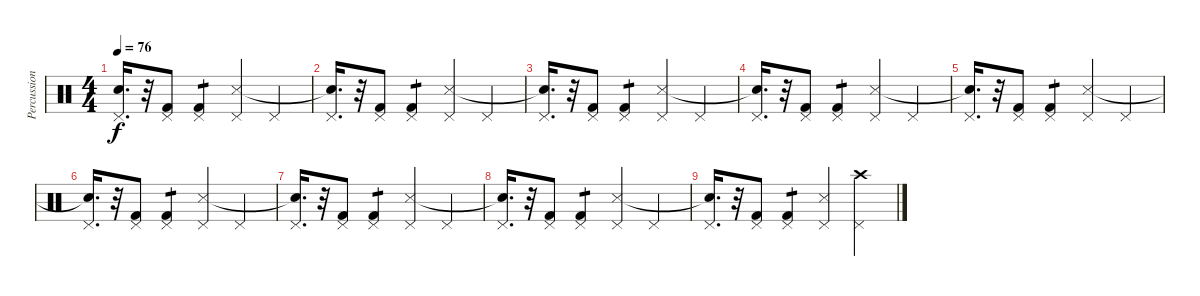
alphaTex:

\track ("Percussion" "Percussion") {instrument percussion}
\staff {score}
\articulation defaults
\ts (4 4)
\tempo 76
\clef neutral
\ks c
("Pedal Hi-Hat (hit)" "Snare (hit)"{t}).16{d dy f} r.32 ("Pedal Hi-Hat (hit)" "Kick (hit) 2").8 ("Pedal Hi-Hat (hit)" "Kick (hit) 2").4{tp 1} ("Pedal Hi-Hat (hit)" "Snare (side stick) 3").4 "Pedal Hi-Hat (hit)".4 |
("Pedal Hi-Hat (hit)" "Snare (hit)"{t}).16{d} r.32 ("Pedal Hi-Hat (hit)" "Kick (hit) 2").8 ("Pedal Hi-Hat (hit)" "Kick (hit) 2").4{tp 1} ("Pedal Hi-Hat (hit)" "Snare (side stick) 3").4 "Pedal Hi-Hat (hit)".4 |
("Pedal Hi-Hat (hit)" "Snare (hit)"{t}).16{d} r.32 ("Pedal Hi-Hat (hit)" "Kick (hit) 2").8 ("Pedal Hi-Hat (hit)" "Kick (hit) 2").4{tp 1} ("Pedal Hi-Hat (hit)" "Snare (side stick) 3").4 "Pedal Hi-Hat (hit)".4 |
("Pedal Hi-Hat (hit)" "Snare (hit)"{t}).16{d} r.32 ("Pedal Hi-Hat (hit)" "Kick (hit) 2").8 ("Pedal Hi-Hat (hit)" "Kick (hit) 2").4{tp 1} ("Pedal Hi-Hat (hit)" "Snare (side stick) 3").4 "Pedal Hi-Hat (hit)".4 |
("Pedal Hi-Hat (hit)" "Snare (hit)"{t}).16{d} r.32 ("Pedal Hi-Hat (hit)" "Kick (hit) 2").8 ("Pedal Hi-Hat (hit)" "Kick (hit) 2").4{tp 1} ("Pedal Hi-Hat (hit)" "Snare (side stick) 3").4 "Pedal Hi-Hat (hit)".4 |
("Pedal Hi-Hat (hit)" "Snare (hit)"{t}).16{d} r.32 ("Pedal Hi-Hat (hit)" "Kick (hit) 2").8 ("Pedal Hi-Hat (hit)" "Kick (hit) 2").4{tp 1} ("Pedal Hi-Hat (hit)" "Snare (side stick) 3").4 "Pedal Hi-Hat (hit)".4 |
("Pedal Hi-Hat (hit)" "Snare (hit)"{t}).16{d} r.32 ("Pedal Hi-Hat (hit)" "Kick (hit) 2").8 ("Pedal Hi-Hat (hit)" "Kick (hit) 2").4{tp 1} ("Pedal Hi-Hat (hit)" "Snare (side stick) 3").4 "Pedal Hi-Hat (hit)".4 |
("Pedal Hi-Hat (hit)" "Snare (hit)"{t}).16{d} r.32 ("Pedal Hi-Hat (hit)" "Kick (hit) 2").8 ("Pedal Hi-Hat (hit)" "Kick (hit) 2").4{tp 1} ("Pedal Hi-Hat (hit)" "Snare (side stick) 3").4 "Pedal Hi-Hat (hit)".4 |
("Pedal Hi-Hat (hit)" "Snare (hit)"{t}).16{d} r.32 ("Pedal Hi-Hat (hit)" "Kick (hit) 2").8 ("Pedal Hi-Hat (hit)" "Kick (hit) 2").4{tp 1} ("Pedal Hi-Hat (hit)" "Snare (side stick) 3").4 ("Pedal Hi-Hat (hit)" "Crash high (hit)").4
